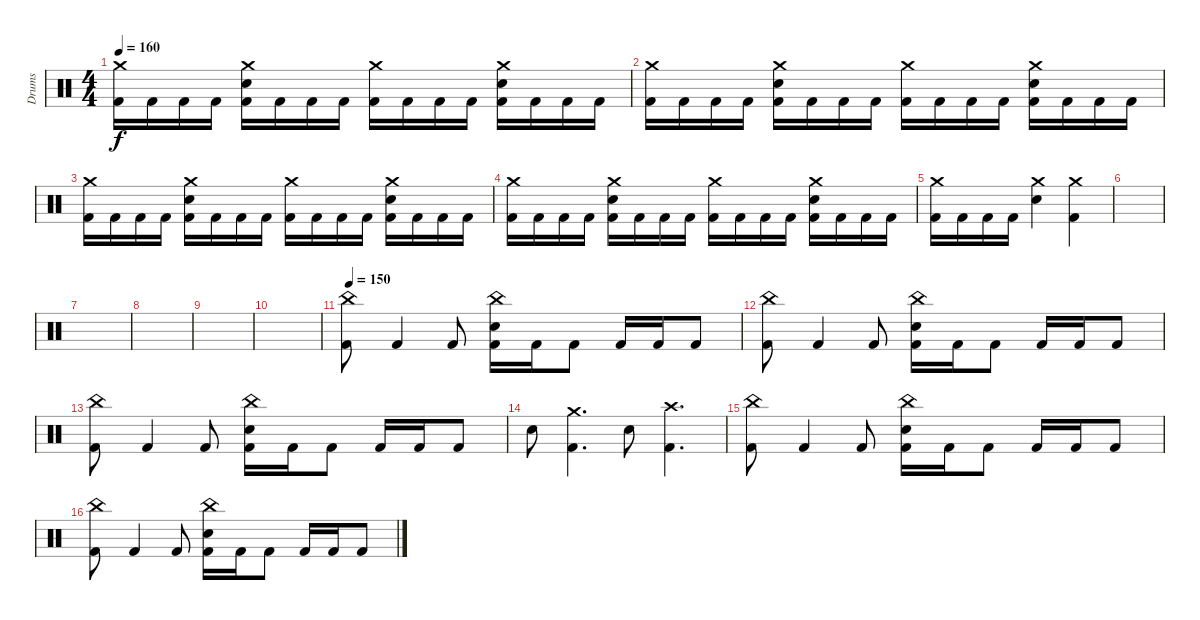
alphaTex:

\track ("Drums" "Drums") {instrument percussion}
\staff {score}
\articulation defaults
\ts (4 4)
\tempo 160
\clef neutral
\ks c
("Crash medium (hit)" "Kick (hit) 2").16{dy f} "Kick (hit) 2".16 "Kick (hit) 2".16 "Kick (hit) 2".16 ("Crash medium (hit)" "Electric Snare (hit)" "Kick (hit) 2").16 "Kick (hit) 2".16 "Kick (hit) 2".16 "Kick (hit) 2".16 ("Crash medium (hit)" "Kick (hit) 2").16 "Kick (hit) 2".16 "Kick (hit) 2".16 "Kick (hit) 2".16 ("Crash medium (hit)" "Electric Snare (hit)" "Kick (hit) 2").16 "Kick (hit) 2".16 "Kick (hit) 2".16 "Kick (hit) 2".16 |
("Crash medium (hit)" "Kick (hit) 2").16 "Kick (hit) 2".16 "Kick (hit) 2".16 "Kick (hit) 2".16 ("Crash medium (hit)" "Electric Snare (hit)" "Kick (hit) 2").16 "Kick (hit) 2".16 "Kick (hit) 2".16 "Kick (hit) 2".16 ("Crash medium (hit)" "Kick (hit) 2").16 "Kick (hit) 2".16 "Kick (hit) 2".16 "Kick (hit) 2".16 ("Crash medium (hit)" "Electric Snare (hit)" "Kick (hit) 2").16 "Kick (hit) 2".16 "Kick (hit) 2".16 "Kick (hit) 2".16 |
("Crash medium (hit)" "Kick (hit) 2").16 "Kick (hit) 2".16 "Kick (hit) 2".16 "Kick (hit) 2".16 ("Crash medium (hit)" "Electric Snare (hit)" "Kick (hit) 2").16 "Kick (hit) 2".16 "Kick (hit) 2".16 "Kick (hit) 2".16 ("Crash medium (hit)" "Kick (hit) 2").16 "Kick (hit) 2".16 "Kick (hit) 2".16 "Kick (hit) 2".16 ("Crash medium (hit)" "Electric Snare (hit)" "Kick (hit) 2").16 "Kick (hit) 2".16 "Kick (hit) 2".16 "Kick (hit) 2".16 |
("Crash medium (hit)" "Kick (hit) 2").16 "Kick (hit) 2".16 "Kick (hit) 2".16 "Kick (hit) 2".16 ("Crash medium (hit)" "Electric Snare (hit)" "Kick (hit) 2").16 "Kick (hit) 2".16 "Kick (hit) 2".16 "Kick (hit) 2".16 ("Crash medium (hit)" "Kick (hit) 2").16 "Kick (hit) 2".16 "Kick (hit) 2".16 "Kick (hit) 2".16 ("Crash medium (hit)" "Electric Snare (hit)" "Kick (hit) 2").16 "Kick (hit) 2".16 "Kick (hit) 2".16 "Kick (hit) 2".16 |
("Crash medium (hit)" "Kick (hit) 2").16 "Kick (hit) 2".16 "Kick (hit) 2".16 "Kick (hit) 2".16 ("Crash medium (hit)" "Electric Snare (hit)").4 ("Crash medium (hit)" "Kick (hit) 2").4 |
|
|
|
|
|
\tempo 150
("China (hit)" "Kick (hit) 2").8 "Kick (hit) 2".4 "Kick (hit) 2".8 ("China (hit)" "Electric Snare (hit)" "Kick (hit) 2").16 "Kick (hit) 2".16 "Kick (hit) 2".8 "Kick (hit) 2".16 "Kick (hit) 2".16 "Kick (hit) 2".8 |
("China (hit)" "Kick (hit) 2").8 "Kick (hit) 2".4 "Kick (hit) 2".8 ("China (hit)" "Electric Snare (hit)" "Kick (hit) 2").16 "Kick (hit) 2".16 "Kick (hit) 2".8 "Kick (hit) 2".16 "Kick (hit) 2".16 "Kick (hit) 2".8 |
("China (hit)" "Kick (hit) 2").8 "Kick (hit) 2".4 "Kick (hit) 2".8 ("China (hit)" "Electric Snare (hit)" "Kick (hit) 2").16 "Kick (hit) 2".16 "Kick (hit) 2".8 "Kick (hit) 2".16 "Kick (hit) 2".16 "Kick (hit) 2".8 |
"Electric Snare (hit)".8 ("Crash medium (hit)" "Kick (hit) 2").4{d} "Electric Snare (hit)".8 ("Crash high (hit)" "Kick (hit) 2").4{d} |
("China (hit)" "Kick (hit) 2").8 "Kick (hit) 2".4 "Kick (hit) 2".8 ("China (hit)" "Electric Snare (hit)" "Kick (hit) 2").16 "Kick (hit) 2".16 "Kick (hit) 2".8 "Kick (hit) 2".16 "Kick (hit) 2".16 "Kick (hit) 2".8 |
("China (hit)" "Kick (hit) 2").8 "Kick (hit) 2".4 "Kick (hit) 2".8 ("China (hit)" "Electric Snare (hit)" "Kick (hit) 2").16 "Kick (hit) 2".16 "Kick (hit) 2".8 "Kick (hit) 2".16 "Kick (hit) 2".16 "Kick (hit) 2".8
